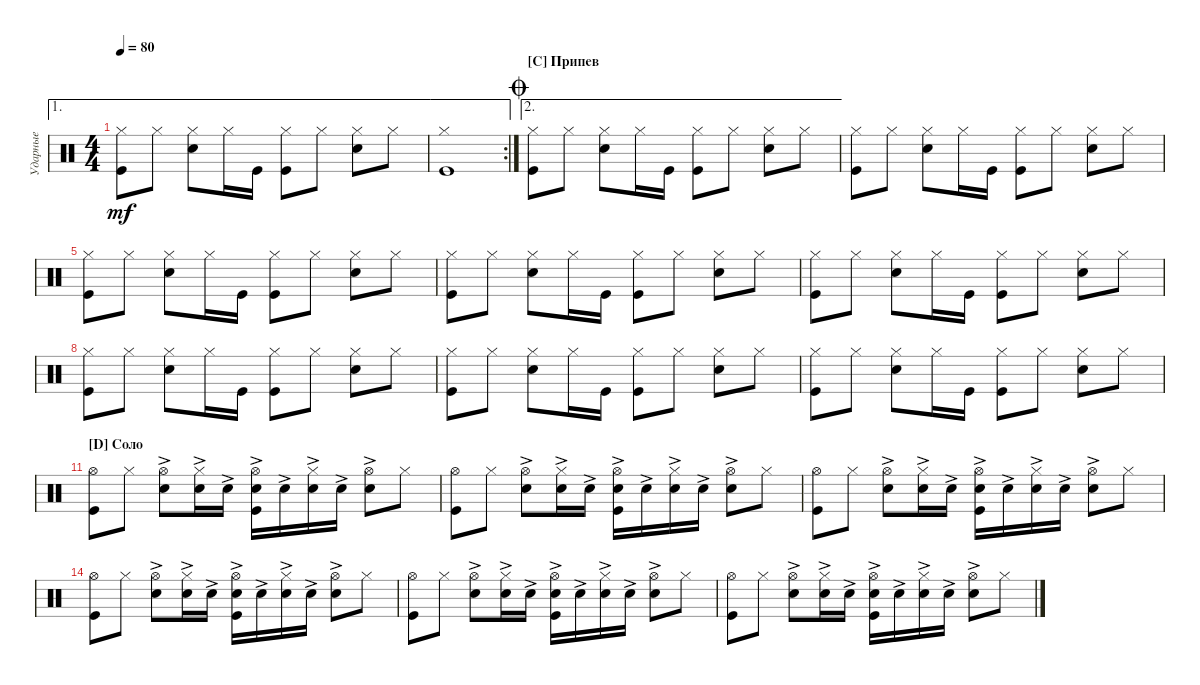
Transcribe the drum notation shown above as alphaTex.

\defaultSystemsLayout 4
\bracketExtendMode groupsimilarinstruments
\multiTrackTrackNamePolicy hidden
\firstSystemTrackNameMode fullname
\otherSystemsTrackNameMode fullname
\otherSystemsTrackNameOrientation horizontal
\defaultBarNumberDisplay FirstOfSystem
\track ("Ударные" "Drums") {instrument percussion}
\staff {score}
\articulation defaults
\ae 1
\ts (4 4)
\tempo 80
\clef neutral
\scale
0.323671
\ks aminor
("Hi-Hat (closed)" "Kick (hit)").8{dy mf} "Hi-Hat (closed)".8 ("Hi-Hat (closed)" "Snare (hit) 2").8 "Hi-Hat (closed)".16 "Kick (hit)".16 ("Hi-Hat (closed)" "Kick (hit)").8 "Hi-Hat (closed)".8 ("Hi-Hat (closed)" "Snare (hit) 2").8 "Hi-Hat (closed)".8 |
\ae 1
\rc 2
\scale
0.352657 ("Hi-Hat (closed)" "Kick (hit)").1 |
\ae 2
\section ("C" "Припев")
\jump coda
\scale
0.333333 ("Hi-Hat (closed)" "Kick (hit)").8 "Hi-Hat (closed)".8 ("Hi-Hat (closed)" "Snare (hit) 2").8 "Hi-Hat (closed)".16 "Kick (hit)".16 ("Hi-Hat (closed)" "Kick (hit)").8 "Hi-Hat (closed)".8 ("Hi-Hat (closed)" "Snare (hit) 2").8 "Hi-Hat (closed)".8 |
\scale
0.333333 ("Hi-Hat (closed)" "Kick (hit)").8 "Hi-Hat (closed)".8 ("Hi-Hat (closed)" "Snare (hit) 2").8 "Hi-Hat (closed)".16 "Kick (hit)".16 ("Hi-Hat (closed)" "Kick (hit)").8 "Hi-Hat (closed)".8 ("Hi-Hat (closed)" "Snare (hit) 2").8 "Hi-Hat (closed)".8 |
\scale
0.333333 ("Hi-Hat (closed)" "Kick (hit)").8 "Hi-Hat (closed)".8 ("Hi-Hat (closed)" "Snare (hit) 2").8 "Hi-Hat (closed)".16 "Kick (hit)".16 ("Hi-Hat (closed)" "Kick (hit)").8 "Hi-Hat (closed)".8 ("Hi-Hat (closed)" "Snare (hit) 2").8 "Hi-Hat (closed)".8 |
\scale
0.333333 ("Hi-Hat (closed)" "Kick (hit)").8 "Hi-Hat (closed)".8 ("Hi-Hat (closed)" "Snare (hit) 2").8 "Hi-Hat (closed)".16 "Kick (hit)".16 ("Hi-Hat (closed)" "Kick (hit)").8 "Hi-Hat (closed)".8 ("Hi-Hat (closed)" "Snare (hit) 2").8 "Hi-Hat (closed)".8 |
\scale
0.333333 ("Hi-Hat (closed)" "Kick (hit)").8 "Hi-Hat (closed)".8 ("Hi-Hat (closed)" "Snare (hit) 2").8 "Hi-Hat (closed)".16 "Kick (hit)".16 ("Hi-Hat (closed)" "Kick (hit)").8 "Hi-Hat (closed)".8 ("Hi-Hat (closed)" "Snare (hit) 2").8 "Hi-Hat (closed)".8 |
\scale
0.333333 ("Hi-Hat (closed)" "Kick (hit)").8 "Hi-Hat (closed)".8 ("Hi-Hat (closed)" "Snare (hit) 2").8 "Hi-Hat (closed)".16 "Kick (hit)".16 ("Hi-Hat (closed)" "Kick (hit)").8 "Hi-Hat (closed)".8 ("Hi-Hat (closed)" "Snare (hit) 2").8 "Hi-Hat (closed)".8 |
\scale
0.333333 ("Hi-Hat (closed)" "Kick (hit)").8 "Hi-Hat (closed)".8 ("Hi-Hat (closed)" "Snare (hit) 2").8 "Hi-Hat (closed)".16 "Kick (hit)".16 ("Hi-Hat (closed)" "Kick (hit)").8 "Hi-Hat (closed)".8 ("Hi-Hat (closed)" "Snare (hit) 2").8 "Hi-Hat (closed)".8 |
\scale
0.333333 ("Hi-Hat (closed)" "Kick (hit)").8 "Hi-Hat (closed)".8 ("Hi-Hat (closed)" "Snare (hit) 2").8 "Hi-Hat (closed)".16 "Kick (hit)".16 ("Hi-Hat (closed)" "Kick (hit)").8 "Hi-Hat (closed)".8 ("Hi-Hat (closed)" "Snare (hit) 2").8 "Hi-Hat (closed)".8 |
\section ("D" "Соло")
\scale
0.333333 ("Hi-Hat (open)" "Kick (hit)").8 "Hi-Hat (closed)".8 ("Hi-Hat (open)" "Snare (hit) 2"{ac}).8 ("Snare (hit) 2"{ac} "Hi-Hat (closed)").16 "Snare (hit) 2"{ac}.16 ("Snare (hit) 2"{ac} "Kick (hit)" "Hi-Hat (open)").16 "Snare (hit) 2"{ac}.16 ("Snare (hit) 2"{ac} "Hi-Hat (closed)").16 "Snare (hit) 2"{ac}.16 ("Hi-Hat (open)" "Snare (hit) 2"{ac}).8 "Hi-Hat (closed)".8 |
\scale
0.333333 ("Hi-Hat (open)" "Kick (hit)").8 "Hi-Hat (closed)".8 ("Hi-Hat (open)" "Snare (hit) 2"{ac}).8 ("Snare (hit) 2"{ac} "Hi-Hat (closed)").16 "Snare (hit) 2"{ac}.16 ("Snare (hit) 2"{ac} "Kick (hit)" "Hi-Hat (open)").16 "Snare (hit) 2"{ac}.16 ("Snare (hit) 2"{ac} "Hi-Hat (closed)").16 "Snare (hit) 2"{ac}.16 ("Hi-Hat (open)" "Snare (hit) 2"{ac}).8 "Hi-Hat (closed)".8 |
\scale
0.333333 ("Hi-Hat (open)" "Kick (hit)").8 "Hi-Hat (closed)".8 ("Hi-Hat (open)" "Snare (hit) 2"{ac}).8 ("Snare (hit) 2"{ac} "Hi-Hat (closed)").16 "Snare (hit) 2"{ac}.16 ("Snare (hit) 2"{ac} "Kick (hit)" "Hi-Hat (open)").16 "Snare (hit) 2"{ac}.16 ("Snare (hit) 2"{ac} "Hi-Hat (closed)").16 "Snare (hit) 2"{ac}.16 ("Hi-Hat (open)" "Snare (hit) 2"{ac}).8 "Hi-Hat (closed)".8 |
\scale
0.333333 ("Hi-Hat (open)" "Kick (hit)").8 "Hi-Hat (closed)".8 ("Hi-Hat (open)" "Snare (hit) 2"{ac}).8 ("Snare (hit) 2"{ac} "Hi-Hat (closed)").16 "Snare (hit) 2"{ac}.16 ("Snare (hit) 2"{ac} "Kick (hit)" "Hi-Hat (open)").16 "Snare (hit) 2"{ac}.16 ("Snare (hit) 2"{ac} "Hi-Hat (closed)").16 "Snare (hit) 2"{ac}.16 ("Hi-Hat (open)" "Snare (hit) 2"{ac}).8 "Hi-Hat (closed)".8 |
\scale
0.333333 ("Hi-Hat (open)" "Kick (hit)").8 "Hi-Hat (closed)".8 ("Hi-Hat (open)" "Snare (hit) 2"{ac}).8 ("Snare (hit) 2"{ac} "Hi-Hat (closed)").16 "Snare (hit) 2"{ac}.16 ("Snare (hit) 2"{ac} "Kick (hit)" "Hi-Hat (open)").16 "Snare (hit) 2"{ac}.16 ("Snare (hit) 2"{ac} "Hi-Hat (closed)").16 "Snare (hit) 2"{ac}.16 ("Hi-Hat (open)" "Snare (hit) 2"{ac}).8 "Hi-Hat (closed)".8 |
\scale
0.333333 ("Hi-Hat (open)" "Kick (hit)").8 "Hi-Hat (closed)".8 ("Hi-Hat (open)" "Snare (hit) 2"{ac}).8 ("Snare (hit) 2"{ac} "Hi-Hat (closed)").16 "Snare (hit) 2"{ac}.16 ("Snare (hit) 2"{ac} "Kick (hit)" "Hi-Hat (open)").16 "Snare (hit) 2"{ac}.16 ("Snare (hit) 2"{ac} "Hi-Hat (closed)").16 "Snare (hit) 2"{ac}.16 ("Hi-Hat (open)" "Snare (hit) 2"{ac}).8 "Hi-Hat (closed)".8
